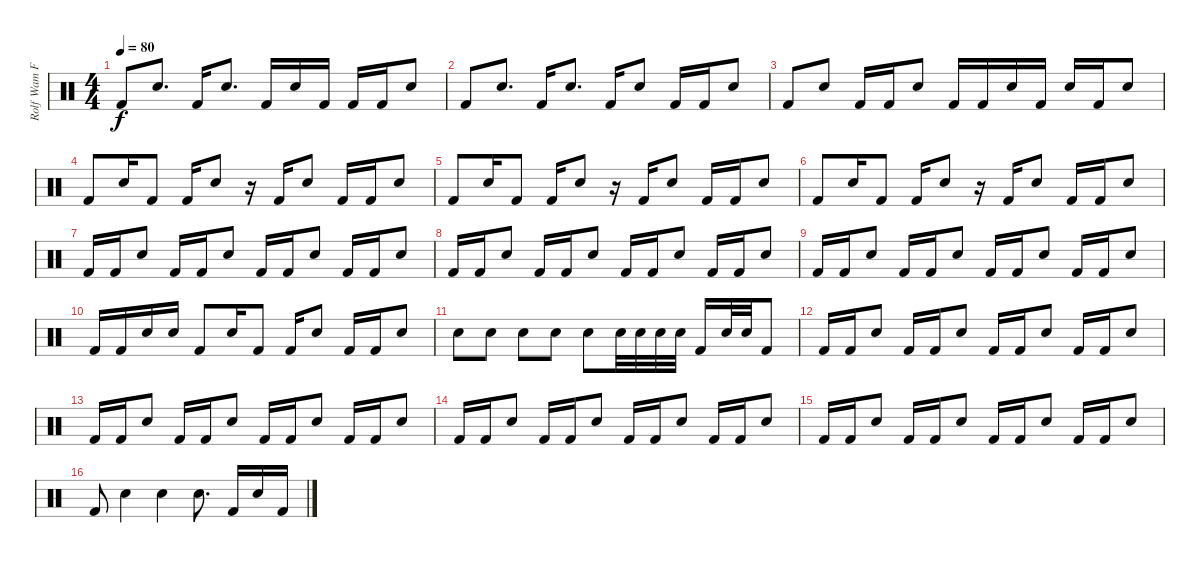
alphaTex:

\track ("Rolf Wam Fjell" "Rolf Wam F") {instrument percussion}
\staff {score}
\articulation defaults
\ts (4 4)
\tempo 80
\clef neutral
\ks c "Kick (hit) 2".8{dy f} "Snare (hit) 2".8{d} "Kick (hit) 2".16 "Snare (hit) 2".8{d} "Kick (hit) 2".16 "Snare (hit) 2".16 "Kick (hit) 2".16 "Kick (hit) 2".16 "Kick (hit) 2".16 "Snare (hit) 2".8
|
"Kick (hit) 2".8 "Snare (hit) 2".8{d} "Kick (hit) 2".16 "Snare (hit) 2".8{d} "Kick (hit) 2".16 "Snare (hit) 2".8 "Kick (hit) 2".16 "Kick (hit) 2".16 "Snare (hit) 2".8 |
"Kick (hit) 2".8 "Snare (hit) 2".8 "Kick (hit) 2".16 "Kick (hit) 2".16 "Snare (hit) 2".8 "Kick (hit) 2".16 "Kick (hit) 2".16 "Snare (hit) 2".16 "Kick (hit) 2".16 "Snare (hit) 2".16 "Kick (hit) 2".16 "Snare (hit) 2".8 |
"Kick (hit) 2".8 "Snare (hit) 2".16 "Kick (hit) 2".8 "Kick (hit) 2".16 "Snare (hit) 2".8 r.16 "Kick (hit) 2".16 "Snare (hit) 2".8 "Kick (hit) 2".16 "Kick (hit) 2".16 "Snare (hit) 2".8 |
"Kick (hit) 2".8 "Snare (hit) 2".16 "Kick (hit) 2".8 "Kick (hit) 2".16 "Snare (hit) 2".8 r.16 "Kick (hit) 2".16 "Snare (hit) 2".8 "Kick (hit) 2".16 "Kick (hit) 2".16 "Snare (hit) 2".8 |
"Kick (hit) 2".8 "Snare (hit) 2".16 "Kick (hit) 2".8 "Kick (hit) 2".16 "Snare (hit) 2".8 r.16 "Kick (hit) 2".16 "Snare (hit) 2".8 "Kick (hit) 2".16 "Kick (hit) 2".16 "Snare (hit) 2".8 |
"Kick (hit) 2".16 "Kick (hit) 2".16 "Snare (hit) 2".8 "Kick (hit) 2".16 "Kick (hit) 2".16 "Snare (hit) 2".8 "Kick (hit) 2".16 "Kick (hit) 2".16 "Snare (hit) 2".8 "Kick (hit) 2".16 "Kick (hit) 2".16 "Snare (hit) 2".8 |
"Kick (hit) 2".16 "Kick (hit) 2".16 "Snare (hit) 2".8 "Kick (hit) 2".16 "Kick (hit) 2".16 "Snare (hit) 2".8 "Kick (hit) 2".16 "Kick (hit) 2".16 "Snare (hit) 2".8 "Kick (hit) 2".16 "Kick (hit) 2".16 "Snare (hit) 2".8 |
"Kick (hit) 2".16 "Kick (hit) 2".16 "Snare (hit) 2".8 "Kick (hit) 2".16 "Kick (hit) 2".16 "Snare (hit) 2".8 "Kick (hit) 2".16 "Kick (hit) 2".16 "Snare (hit) 2".8 "Kick (hit) 2".16 "Kick (hit) 2".16 "Snare (hit) 2".8 |
"Kick (hit) 2".16 "Kick (hit) 2".16 "Snare (hit) 2".16 "Snare (hit) 2".16 "Kick (hit) 2".8 "Snare (hit) 2".16 "Kick (hit) 2".8 "Kick (hit) 2".16 "Snare (hit) 2".8 "Kick (hit) 2".16 "Kick (hit) 2".16 "Snare (hit) 2".8 |
"Snare (hit) 2".8 "Snare (hit) 2".8 "Snare (hit) 2".8 "Snare (hit) 2".8 "Snare (hit) 2".8 "Snare (hit) 2".32 "Snare (hit) 2".32 "Snare (hit) 2".32 "Snare (hit) 2".32 "Kick (hit) 2".16 "Snare (hit) 2".32 "Snare (hit) 2".32 "Kick (hit) 2".8 |
"Kick (hit) 2".16 "Kick (hit) 2".16 "Snare (hit) 2".8 "Kick (hit) 2".16 "Kick (hit) 2".16 "Snare (hit) 2".8 "Kick (hit) 2".16 "Kick (hit) 2".16 "Snare (hit) 2".8 "Kick (hit) 2".16 "Kick (hit) 2".16 "Snare (hit) 2".8 |
"Kick (hit) 2".16 "Kick (hit) 2".16 "Snare (hit) 2".8 "Kick (hit) 2".16 "Kick (hit) 2".16 "Snare (hit) 2".8 "Kick (hit) 2".16 "Kick (hit) 2".16 "Snare (hit) 2".8 "Kick (hit) 2".16 "Kick (hit) 2".16 "Snare (hit) 2".8 |
"Kick (hit) 2".16 "Kick (hit) 2".16 "Snare (hit) 2".8 "Kick (hit) 2".16 "Kick (hit) 2".16 "Snare (hit) 2".8 "Kick (hit) 2".16 "Kick (hit) 2".16 "Snare (hit) 2".8 "Kick (hit) 2".16 "Kick (hit) 2".16 "Snare (hit) 2".8 |
"Kick (hit) 2".16 "Kick (hit) 2".16 "Snare (hit) 2".8 "Kick (hit) 2".16 "Kick (hit) 2".16 "Snare (hit) 2".8 "Kick (hit) 2".16 "Kick (hit) 2".16 "Snare (hit) 2".8 "Kick (hit) 2".16 "Kick (hit) 2".16 "Snare (hit) 2".8 |
"Kick (hit) 2".8 "Snare (hit) 2".4 "Snare (hit) 2".4 "Snare (hit) 2".8{d} "Kick (hit) 2".16 "Snare (hit) 2".16 "Kick (hit) 2".16
